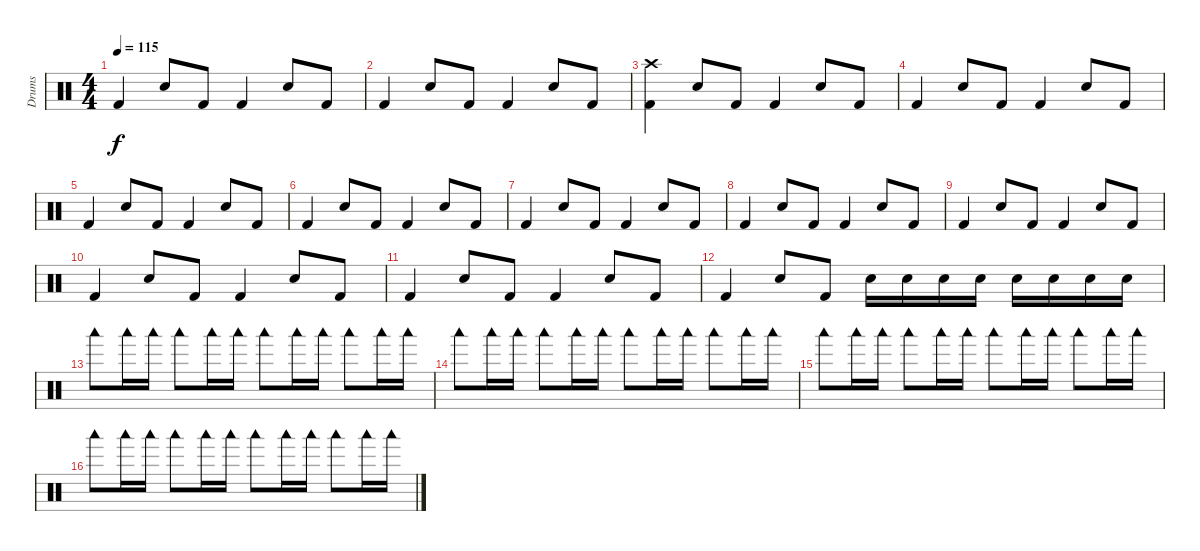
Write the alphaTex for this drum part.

\track ("Drums" "Drums") {instrument percussion}
\staff {score}
\articulation defaults
\ts (4 4)
\tempo 115
\clef neutral
\ks c "Kick (hit) 2".4{dy f} "Snare (hit) 2".8 "Kick (hit) 2".8 "Kick (hit) 2".4 "Snare (hit) 2".8 "Kick (hit) 2".8
|
"Kick (hit) 2".4 "Snare (hit) 2".8 "Kick (hit) 2".8 "Kick (hit) 2".4 "Snare (hit) 2".8 "Kick (hit) 2".8 |
("Crash high (hit)" "Kick (hit) 2").4 "Snare (hit) 2".8 "Kick (hit) 2".8 "Kick (hit) 2".4 "Snare (hit) 2".8 "Kick (hit) 2".8 |
"Kick (hit) 2".4 "Snare (hit) 2".8 "Kick (hit) 2".8 "Kick (hit) 2".4 "Snare (hit) 2".8 "Kick (hit) 2".8 |
"Kick (hit) 2".4 "Snare (hit) 2".8 "Kick (hit) 2".8 "Kick (hit) 2".4 "Snare (hit) 2".8 "Kick (hit) 2".8 |
"Kick (hit) 2".4 "Snare (hit) 2".8 "Kick (hit) 2".8 "Kick (hit) 2".4 "Snare (hit) 2".8 "Kick (hit) 2".8 |
"Kick (hit) 2".4 "Snare (hit) 2".8 "Kick (hit) 2".8 "Kick (hit) 2".4 "Snare (hit) 2".8 "Kick (hit) 2".8 |
"Kick (hit) 2".4 "Snare (hit) 2".8 "Kick (hit) 2".8 "Kick (hit) 2".4 "Snare (hit) 2".8 "Kick (hit) 2".8 |
"Kick (hit) 2".4 "Snare (hit) 2".8 "Kick (hit) 2".8 "Kick (hit) 2".4 "Snare (hit) 2".8 "Kick (hit) 2".8 |
"Kick (hit) 2".4 "Snare (hit) 2".8 "Kick (hit) 2".8 "Kick (hit) 2".4 "Snare (hit) 2".8 "Kick (hit) 2".8 |
"Kick (hit) 2".4 "Snare (hit) 2".8 "Kick (hit) 2".8 "Kick (hit) 2".4 "Snare (hit) 2".8 "Kick (hit) 2".8 |
"Kick (hit) 2".4 "Snare (hit) 2".8 "Kick (hit) 2".8 "Snare (hit) 2".16 "Snare (hit) 2".16 "Snare (hit) 2".16 "Snare (hit) 2".16 "Snare (hit) 2".16 "Snare (hit) 2".16 "Snare (hit) 2".16 "Snare (hit) 2".16 |
"Woodblock low (hit)".8 "Woodblock low (hit)".16 "Woodblock low (hit)".16 "Woodblock low (hit)".8 "Woodblock low (hit)".16 "Woodblock low (hit)".16 "Woodblock low (hit)".8 "Woodblock low (hit)".16 "Woodblock low (hit)".16 "Woodblock low (hit)".8 "Woodblock low (hit)".16 "Woodblock low (hit)".16 |
"Woodblock low (hit)".8 "Woodblock low (hit)".16 "Woodblock low (hit)".16 "Woodblock low (hit)".8 "Woodblock low (hit)".16 "Woodblock low (hit)".16 "Woodblock low (hit)".8 "Woodblock low (hit)".16 "Woodblock low (hit)".16 "Woodblock low (hit)".8 "Woodblock low (hit)".16 "Woodblock low (hit)".16 |
"Woodblock low (hit)".8 "Woodblock low (hit)".16 "Woodblock low (hit)".16 "Woodblock low (hit)".8 "Woodblock low (hit)".16 "Woodblock low (hit)".16 "Woodblock low (hit)".8 "Woodblock low (hit)".16 "Woodblock low (hit)".16 "Woodblock low (hit)".8 "Woodblock low (hit)".16 "Woodblock low (hit)".16 |
"Woodblock low (hit)".8 "Woodblock low (hit)".16 "Woodblock low (hit)".16 "Woodblock low (hit)".8 "Woodblock low (hit)".16 "Woodblock low (hit)".16 "Woodblock low (hit)".8 "Woodblock low (hit)".16 "Woodblock low (hit)".16 "Woodblock low (hit)".8 "Woodblock low (hit)".16 "Woodblock low (hit)".16
